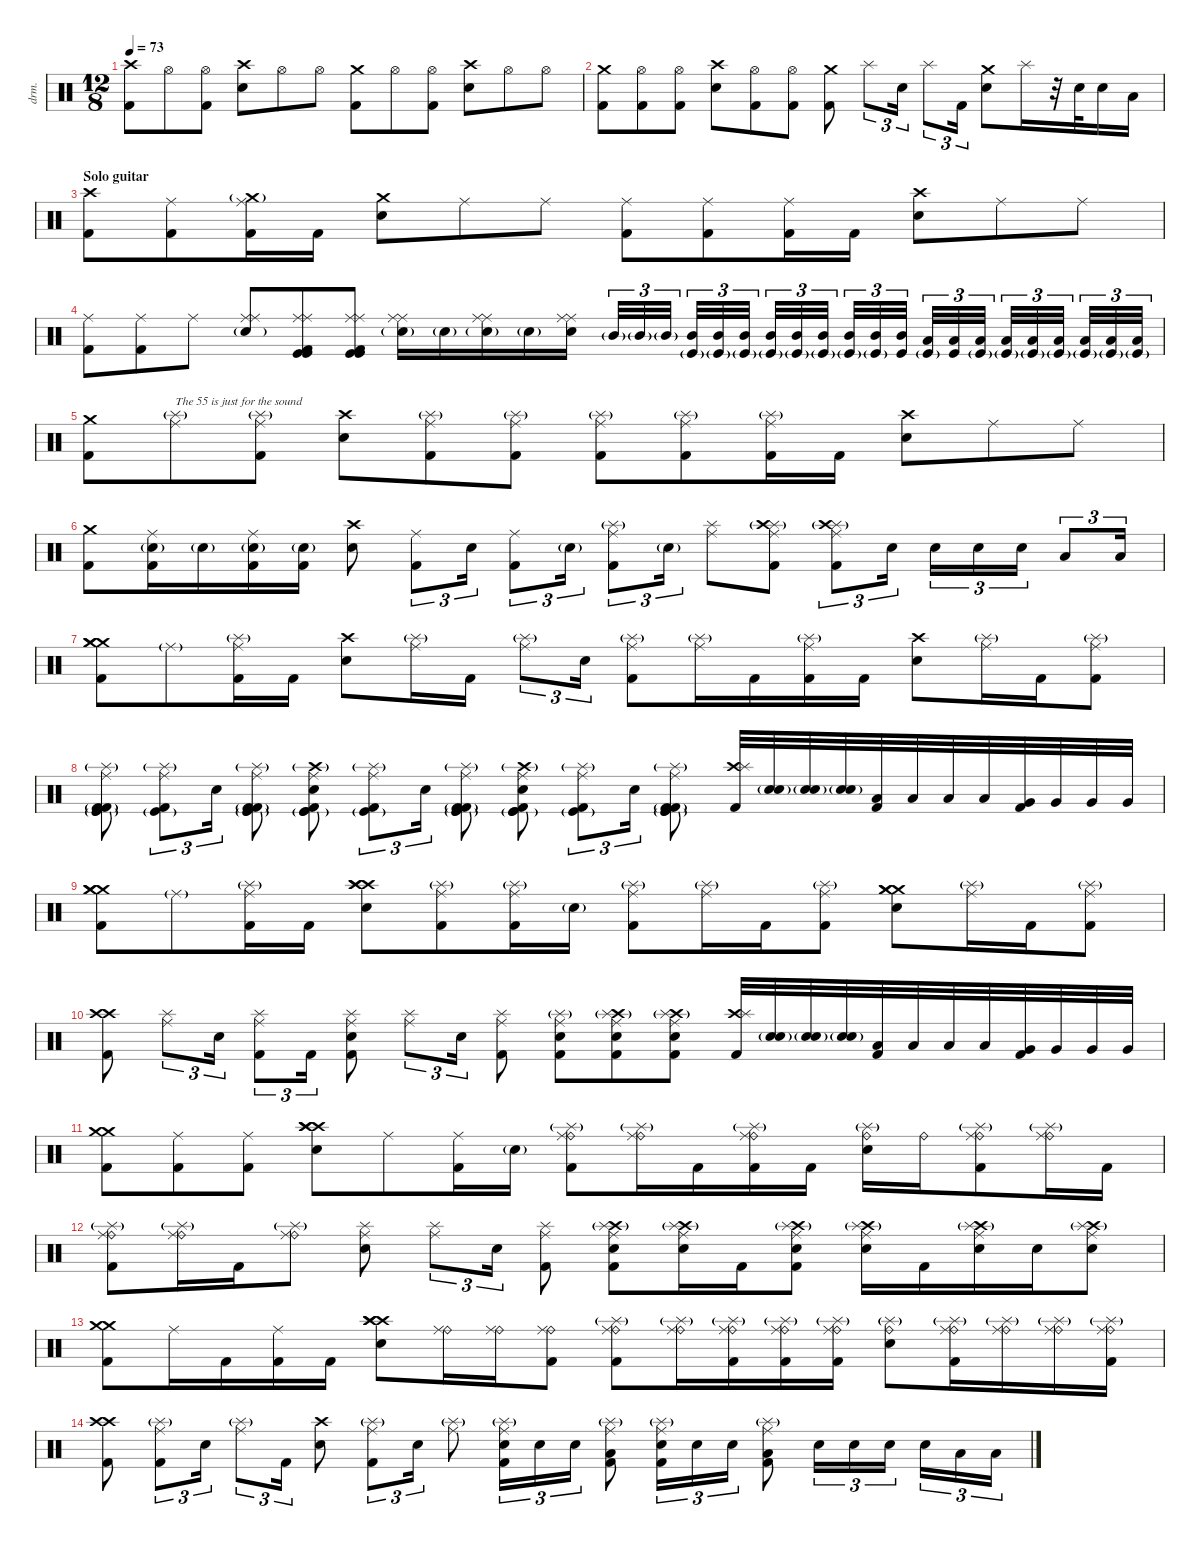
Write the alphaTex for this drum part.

\defaultSystemsLayout 4
\hideDynamics
\bracketExtendMode nobrackets
\otherSystemsTrackNameOrientation horizontal
\track ("Drums" "drm.") {instrument percussion}
\staff {score}
\articulation defaults
\ts (12 8)
\section ("" "")
\tempo 73
\clef neutral
\ks c
("Crash high (hit)" "Kick (hit) 2").8{dy f beam Down} "Hi-Hat (open)".8{beam Down} ("Hi-Hat (open)" "Kick (hit) 2").8{beam Down} ("Snare (hit) 2" "Crash high (hit)").8{beam Down} "Hi-Hat (open)".8{beam Down} "Hi-Hat (open)".8{beam Down} ("Crash medium (hit)" "Kick (hit) 2").8{beam Down} "Hi-Hat (open)".8{beam Down} ("Hi-Hat (open)" "Kick (hit) 2").8{beam Down} ("Snare (hit) 2" "Crash high (hit)").8{beam Down} "Hi-Hat (open)".8{beam Down} "Hi-Hat (open)".8{beam Down} |
("Crash medium (hit)" "Kick (hit) 2").8{beam Down} ("Hi-Hat (open)" "Kick (hit) 2").8{beam Down} ("Hi-Hat (open)" "Kick (hit) 2").8{beam Down} ("Snare (hit) 2" "Crash high (hit)").8{beam Down} ("Hi-Hat (open)" "Kick (hit) 2").8{beam Down} ("Hi-Hat (open)" "Kick (hit) 2").8{beam Down} ("Crash medium (hit)" "Kick (hit) 2").8{beam Down} "Splash (hit)".8{tu (3 2) beam Down} "Snare (hit) 2".16{tu (3 2) beam Down} "Splash (hit)".8{tu (3 2) beam Down} "Kick (hit) 2".16{tu (3 2) beam Down} ("Snare (hit) 2" "Crash medium (hit)").8{beam Down} "Splash (hit)".16{beam Down} r.32{beam Down} "Snare (hit) 2".32{beam Down} "Snare (hit) 2".16{beam Down} "Low Tom (hit)".16{beam Down} |
\section ("" "Solo guitar")
("Crash high (hit)" "Kick (hit) 2").8{beam Down} ("Ride (middle)" "Kick (hit) 2").8{beam Down} ("Crash medium (hit)"{g} "Ride (middle)" "Kick (hit) 2").16{beam Down} "Kick (hit) 2".16{beam Down} ("Snare (hit) 2" "Crash medium (hit)").8{beam Down} "Ride (middle)".8{beam Down} "Ride (middle)".8{beam Down} ("Ride (middle)" "Kick (hit) 2").8{beam Down} ("Ride (middle)" "Kick (hit) 2").8{beam Down} ("Ride (middle)" "Kick (hit) 2").16{beam Down} "Kick (hit) 2".16{beam Down} ("Snare (hit) 2" "Crash high (hit)").8{beam Down} "Ride (middle)".8{beam Down} "Ride (middle)".8{beam Down} |
("Ride (middle)" "Kick (hit) 2").8{dy fff beam Down} ("Ride (middle)" "Kick (hit) 2").8{beam Down} "Ride (middle)".8{beam Down} ("Snare (hit) 2"{g} "Ride (middle)" "Ride (middle)").8{dy f beam Up} ("Kick (hit)" "Kick (hit)" "Ride (middle)" "Ride (middle)" "Kick (hit) 2").8{beam Up} ("Kick (hit)" "Kick (hit)" "Ride (middle)" "Ride (middle)" "Kick (hit) 2").8{beam Up} ("Snare (hit) 2"{g} "Ride (middle)" "Ride (middle)").16{beam Down} "Snare (hit) 2"{g}.16{dy ff beam Down} ("Snare (hit) 2"{g} "Ride (middle)" "Ride (middle)").16{dy mf beam Down} "Snare (hit) 2"{g}.16{dy ff beam Down} ("Snare (hit) 2" "Ride (middle)" "Ride (middle)").16{dy f beam Down} "Mid Tom (hit)"{g}.32{tu (3 2) beam Up} "Mid Tom (hit)"{g}.32{tu (3 2) beam Up} "Mid Tom (hit)"{g}.32{tu (3 2) beam Up} ("Kick (hit)"{g} "Mid Tom (hit)").32{tu (3 2) beam Up} ("Kick (hit)"{g} "Mid Tom (hit)").32{tu (3 2) beam Up} ("Kick (hit)"{g} "Mid Tom (hit)").32{tu (3 2) beam Up} ("Kick (hit)"{g} "Mid Tom (hit)").32{tu (3 2) beam Up} ("Kick (hit)"{g} "Mid Tom (hit)").32{tu (3 2) beam Up} ("Kick (hit)"{g} "Mid Tom (hit)").32{tu (3 2) beam Up} ("Kick (hit)"{g} "Mid Tom (hit)").32{tu (3 2) beam Up} ("Kick (hit)"{g} "Mid Tom (hit)").32{tu (3 2) beam Up} ("Kick (hit)" "Mid Tom (hit)").32{tu (3 2) beam Up} ("Kick (hit)"{g} "Low Tom (hit)").32{tu (3 2) beam Up} ("Kick (hit)" "Low Tom (hit)").32{tu (3 2) beam Up} ("Kick (hit)"{g} "Low Tom (hit)").32{tu (3 2) beam Up} ("Kick (hit)"{g} "Low Tom (hit)").32{tu (3 2) beam Up} ("Kick (hit)"{g} "Low Tom (hit)").32{tu (3 2) beam Up} ("Kick (hit)"{g} "Low Tom (hit)").32{tu (3 2) beam Up} ("Kick (hit)"{g} "Low Tom (hit)").32{tu (3 2) beam Up} ("Kick (hit)"{g} "Low Tom (hit)").32{tu (3 2) beam Up} ("Kick (hit)"{g} "Low Tom (hit)").32{tu (3 2) beam Up} |
("Crash medium (hit)" "Kick (hit) 2").8{beam Down} ("Splash (hit)"{g} "Ride (middle)").8{txt "The 55 is just for the sound" beam Down} ("Splash (hit)"{g} "Ride (middle)" "Kick (hit) 2").8{beam Down} ("Snare (hit) 2" "Crash high (hit)").8{beam Down} ("Splash (hit)"{g} "Ride (middle)" "Kick (hit) 2").8{beam Down} ("Splash (hit)"{g} "Ride (middle)" "Kick (hit) 2").8{beam Down} ("Splash (hit)"{g} "Ride (middle)" "Kick (hit) 2").8{beam Down} ("Splash (hit)"{g} "Ride (middle)" "Kick (hit) 2").8{beam Down} ("Splash (hit)"{g} "Ride (middle)" "Kick (hit) 2").16{beam Down} "Kick (hit) 2".16{beam Down} ("Snare (hit) 2" "Crash high (hit)").8{beam Down} "Ride (middle)".8{beam Down} "Ride (middle)".8{beam Down} |
("Crash medium (hit)" "Kick (hit) 2").8{beam Down} ("Snare (hit) 2"{g} "Ride (middle)" "Kick (hit) 2").16{beam Down} "Snare (hit) 2"{g}.16{beam Down} ("Snare (hit) 2"{g} "Ride (middle)" "Kick (hit) 2").16{beam Down} ("Snare (hit) 2"{g} "Kick (hit) 2").16{beam Down} ("Snare (hit) 2" "Crash high (hit)").8{beam Down} ("Ride (middle)" "Kick (hit) 2").8{tu (3 2) beam Down} "Snare (hit) 2".16{tu (3 2) beam Down} ("Ride (middle)" "Kick (hit) 2").8{tu (3 2) beam Down} "Snare (hit) 2"{g}.16{tu (3 2) beam Down} ("Ride (middle)" "Splash (hit)"{g} "Kick (hit) 2").8{tu (3 2) dy mp beam Down} "Snare (hit) 2"{g}.16{tu (3 2) dy f beam Down} ("Ride (middle)" "Splash (hit)").8{dy mp beam Down} ("Ride (middle)" "Splash (hit)"{g} "Crash high (hit)"{g} "Kick (hit) 2").8{beam Down} ("Ride (middle)" "Splash (hit)" "Crash high (hit)"{g} "Kick (hit) 2").8{tu (3 2) dy f beam Down} "Snare (hit) 2".16{tu (3 2) beam Down} "Snare (hit) 2".16{tu (3 2) beam Down} "Snare (hit) 2".16{tu (3 2) dy mp beam Down} "Snare (hit) 2".16{tu (3 2) dy f beam Down} "Low Tom (hit)".8{tu (3 2) beam Up} "Low Tom (hit)".16{tu (3 2) beam Up} |
("Crash medium (hit)" "Crash medium (hit)" "Crash medium (hit)" "Kick (hit) 2").8{beam Down} "Ride (middle)"{g}.8{beam Down} ("Splash (hit)"{g} "Ride (middle)" "Kick (hit) 2").16{beam Down} "Kick (hit) 2".16{beam Down} ("Snare (hit) 2" "Crash high (hit)").8{beam Down} ("Splash (hit)"{g} "Ride (middle)").16{beam Down} "Kick (hit) 2".16{beam Down} ("Splash (hit)"{g} "Ride (middle)").8{tu (3 2) beam Down} "Snare (hit) 2".16{tu (3 2) beam Down} ("Splash (hit)"{g} "Ride (middle)" "Kick (hit) 2").8{beam Down} ("Splash (hit)"{g} "Ride (middle)").16{beam Down} "Kick (hit) 2".16{beam Down} ("Splash (hit)"{g} "Ride (middle)" "Kick (hit) 2").16{beam Down} "Kick (hit) 2".16{beam Down} ("Snare (hit) 2" "Crash high (hit)").8{beam Down} ("Splash (hit)"{g} "Ride (middle)").16{beam Down} "Kick (hit) 2".16{beam Down} ("Splash (hit)"{g} "Ride (middle)" "Kick (hit) 2").8{beam Down} |
("Kick (hit) 2"{g} "Kick (hit)"{g} "Splash (hit)"{g} "Ride (middle)" "Kick (hit)"{g} "Kick (hit) 2").8{beam Down} ("Splash (hit)"{g} "Ride (middle)" "Kick (hit)"{g} "Kick (hit) 2").8{tu (3 2) dy ff beam Down} "Snare (hit) 2".16{tu (3 2) dy f beam Down} ("Kick (hit) 2"{g} "Kick (hit)"{g} "Splash (hit)"{g} "Ride (middle)" "Kick (hit)"{g} "Kick (hit) 2").8{dy fff beam Down} ("Snare (hit) 2" "Kick (hit)"{g} "Crash high (hit)"{g} "Ride (middle)" "Kick (hit)"{g} "Kick (hit) 2").8{dy f beam Down} ("Splash (hit)"{g} "Ride (middle)" "Kick (hit)"{g} "Kick (hit) 2").8{tu (3 2) dy fff beam Down} "Snare (hit) 2".16{tu (3 2) dy f beam Down} ("Kick (hit) 2"{g} "Kick (hit)"{g} "Splash (hit)"{g} "Ride (middle)" "Kick (hit)"{g} "Kick (hit) 2").8{dy fff beam Down} ("Snare (hit) 2" "Kick (hit)"{g} "Crash high (hit)"{g} "Ride (middle)" "Kick (hit)"{g} "Kick (hit) 2").8{dy f beam Down} ("Splash (hit)"{g} "Ride (middle)" "Kick (hit)"{g} "Kick (hit) 2").8{tu (3 2) dy fff beam Down} "Snare (hit) 2".16{tu (3 2) dy f beam Down} ("Kick (hit) 2"{g} "Kick (hit)"{g} "Splash (hit)"{g} "Ride (middle)" "Kick (hit)"{g} "Kick (hit) 2").8{dy fff beam Down} ("Crash high (hit)" "Splash (hit)" "Kick (hit) 2").32{dy f beam Up} ("Snare (hit) 2" "Snare (hit) 2"{g}).32{beam Up} ("Snare (hit) 2" "Snare (hit) 2"{g}).32{beam Up} ("Snare (hit) 2" "Snare (hit) 2"{g}).32{beam Up} ("Low Tom (hit)" "Kick (hit) 2").32{beam Up} "Low Tom (hit)".32{beam Up} "Low Tom (hit)".32{beam Up} "Low Tom (hit)".32{beam Up} ("Very Low Tom (hit)" "Kick (hit) 2").32{beam Up} "Very Low Tom (hit)".32{beam Up} "Very Low Tom (hit)".32{beam Up} "Very Low Tom (hit)".32{beam Up} |
("Crash medium (hit)" "Crash medium (hit)" "Crash medium (hit)" "Kick (hit) 2").8{beam Down} "Ride (middle)"{g}.8{beam Down} ("Splash (hit)"{g} "Ride (middle)" "Kick (hit) 2").16{beam Down} "Kick (hit) 2".16{beam Down} ("Crash high (hit)" "Snare (hit) 2" "Crash high (hit)" "Crash high (hit)").8{beam Down} ("Splash (hit)"{g} "Ride (middle)" "Kick (hit) 2").8{beam Down} ("Splash (hit)"{g} "Ride (middle)" "Kick (hit) 2").16{beam Down} "Snare (hit) 2"{g}.16{beam Down} ("Splash (hit)"{g} "Ride (middle)" "Kick (hit) 2").8{beam Down} ("Splash (hit)"{g} "Ride (middle)").16{beam Down} "Kick (hit) 2".16{beam Down} ("Splash (hit)"{g} "Ride (middle)" "Kick (hit) 2").8{beam Down} ("Crash medium (hit)" "Snare (hit) 2" "Crash medium (hit)" "Crash medium (hit)").8{beam Down} ("Splash (hit)"{g} "Ride (middle)").16{beam Down} "Kick (hit) 2".16{beam Down} ("Splash (hit)"{g} "Ride (middle)" "Kick (hit) 2").8{beam Down} |
("Crash high (hit)" "Crash high (hit)" "Kick (hit) 2").8{beam Down} ("Splash (hit)" "Ride (middle)").8{tu (3 2) beam Down} "Snare (hit) 2".16{tu (3 2) beam Down} ("Splash (hit)" "Ride (middle)" "Kick (hit) 2").8{tu (3 2) beam Down} "Kick (hit) 2".16{tu (3 2) beam Down} ("Splash (hit)" "Snare (hit) 2" "Ride (middle)" "Kick (hit) 2").8{dy fff beam Down} ("Splash (hit)" "Ride (middle)").8{tu (3 2) beam Down} "Snare (hit) 2".16{tu (3 2) dy f beam Down} ("Splash (hit)" "Ride (middle)" "Kick (hit) 2").8{beam Down} ("Splash (hit)"{g} "Snare (hit) 2" "Ride (middle)" "Kick (hit) 2").8{dy fff beam Down} ("Crash high (hit)"{g} "Splash (hit)"{g} "Snare (hit) 2" "Ride (middle)" "Kick (hit) 2").8{beam Down} ("Crash high (hit)"{g} "Splash (hit)"{g} "Snare (hit) 2" "Ride (middle)" "Kick (hit) 2").8{beam Down} ("Crash high (hit)" "Splash (hit)" "Kick (hit) 2").32{dy f beam Up} ("Snare (hit) 2" "Snare (hit) 2"{g}).32{beam Up} ("Snare (hit) 2" "Snare (hit) 2"{g}).32{beam Up} ("Snare (hit) 2" "Snare (hit) 2"{g}).32{beam Up} ("Low Tom (hit)" "Kick (hit) 2").32{beam Up} "Low Tom (hit)".32{beam Up} "Low Tom (hit)".32{beam Up} "Low Tom (hit)".32{beam Up} ("Very Low Tom (hit)" "Kick (hit) 2").32{beam Up} "Very Low Tom (hit)".32{beam Up} "Very Low Tom (hit)".32{beam Up} "Very Low Tom (hit)".32{beam Up} |
("Crash medium (hit)" "Crash medium (hit)" "Kick (hit) 2").8{beam Down} ("Ride (middle)" "Kick (hit) 2").8{beam Down} ("Ride (middle)" "Kick (hit) 2").8{beam Down} ("Crash high (hit)" "Snare (hit) 2" "Crash high (hit)" "Crash high (hit)").8{beam Down} "Ride (middle)".8{beam Down} ("Ride (middle)" "Kick (hit) 2").16{beam Down} "Snare (hit) 2"{g}.16{beam Down} ("Ride (bell)" "Splash (hit)"{g} "Ride (middle)" "Kick (hit) 2").8{beam Down} ("Ride (bell)" "Splash (hit)"{g} "Ride (middle)").16{beam Down} "Kick (hit) 2".16{beam Down} ("Ride (bell)" "Splash (hit)"{g} "Ride (middle)" "Kick (hit) 2").16{beam Down} "Kick (hit) 2".16{beam Down} ("Ride (bell)" "Splash (hit)"{g} "Snare (hit) 2").16{beam Down} "Ride (bell)".16{beam Down} ("Ride (bell)" "Splash (hit)"{g} "Ride (middle)" "Kick (hit) 2").8{beam Down} ("Ride (bell)" "Splash (hit)"{g} "Ride (middle)").16{beam Down} "Kick (hit) 2".16{beam Down} |
("Ride (bell)" "Splash (hit)"{g} "Ride (middle)" "Kick (hit) 2").8{beam Down} ("Ride (bell)" "Splash (hit)"{g} "Ride (middle)").16{beam Down} "Kick (hit) 2".16{beam Down} ("Ride (bell)" "Splash (hit)"{g} "Ride (middle)").8{beam Down} ("Splash (hit)" "Snare (hit) 2" "Ride (middle)").8{beam Down} ("Splash (hit)" "Ride (middle)").8{tu (3 2) beam Down} "Snare (hit) 2".16{tu (3 2) beam Down} ("Splash (hit)" "Ride (middle)" "Kick (hit) 2").8{beam Down} ("Crash high (hit)"{g} "Splash (hit)"{g} "Snare (hit) 2" "Ride (middle)" "Kick (hit) 2").8{beam Down} ("Crash high (hit)"{g} "Splash (hit)"{g} "Snare (hit) 2" "Ride (middle)").16{beam Down} "Kick (hit) 2".16{beam Down} ("Crash high (hit)"{g} "Splash (hit)"{g} "Snare (hit) 2" "Ride (middle)" "Kick (hit) 2").8{beam Down} ("Crash high (hit)"{g} "Splash (hit)"{g} "Snare (hit) 2" "Ride (middle)").16{beam Down} "Kick (hit) 2".16{beam Down} ("Crash high (hit)"{g} "Splash (hit)"{g} "Snare (hit) 2" "Ride (middle)").16{beam Down} "Snare (hit) 2".16{beam Down} ("Crash high (hit)"{g} "Splash (hit)"{g} "Snare (hit) 2" "Ride (middle)").8{beam Down} |
("Crash medium (hit)" "Crash medium (hit)" "Kick (hit) 2").8{beam Down} "Ride (middle)".16{beam Down} "Kick (hit) 2".16{beam Down} ("Ride (middle)" "Kick (hit) 2").16{beam Down} "Kick (hit) 2".16{beam Down} ("Crash high (hit)" "Snare (hit) 2" "Crash high (hit)" "Crash high (hit)").8{beam Down} ("Ride (bell)" "Ride (middle)").16{beam Down} ("Ride (bell)" "Ride (middle)").16{beam Down} ("Ride (bell)" "Ride (middle)" "Kick (hit) 2").8{beam Down} ("Ride (bell)" "Splash (hit)"{g} "Ride (middle)" "Kick (hit) 2").8{beam Down} ("Ride (bell)" "Splash (hit)"{g} "Ride (middle)").16{beam Down} ("Ride (bell)" "Splash (hit)"{g} "Ride (middle)" "Kick (hit) 2").16{beam Down} ("Ride (bell)" "Splash (hit)"{g} "Ride (middle)" "Kick (hit) 2").16{beam Down} ("Ride (bell)" "Splash (hit)"{g} "Ride (middle)" "Kick (hit) 2").16{beam Down} ("Ride (bell)" "Splash (hit)"{g} "Snare (hit) 2").8{beam Down} ("Ride (bell)" "Splash (hit)"{g} "Ride (middle)" "Kick (hit) 2").16{beam Down} ("Ride (bell)" "Splash (hit)"{g} "Ride (middle)").16{beam Down} ("Ride (bell)" "Splash (hit)"{g} "Ride (middle)").16{beam Down} ("Ride (bell)" "Splash (hit)"{g} "Ride (middle)" "Kick (hit) 2").16{beam Down} |
("Crash high (hit)" "Crash high (hit)" "Kick (hit) 2").8{beam Down} ("Splash (hit)"{g} "Ride (middle)" "Kick (hit) 2").8{tu (3 2) beam Down} "Snare (hit) 2".16{tu (3 2) beam Down} ("Splash (hit)"{g} "Ride (middle)").8{tu (3 2) beam Down} "Kick (hit) 2".16{tu (3 2) beam Down} ("Snare (hit) 2" "Crash high (hit)").8{beam Down} ("Splash (hit)"{g} "Ride (middle)" "Kick (hit) 2").8{tu (3 2) beam Down} "Snare (hit) 2".16{tu (3 2) beam Down} ("Splash (hit)"{g} "Ride (middle)").8{beam Down} ("Splash (hit)"{g} "Snare (hit) 2" "Ride (middle)" "Kick (hit) 2").16{tu (3 2) beam Down} "Snare (hit) 2".16{tu (3 2) beam Down} "Snare (hit) 2".16{tu (3 2) beam Down} ("Splash (hit)"{g} "Low Tom (hit)" "Ride (middle)" "Kick (hit) 2").8{beam Down} ("Splash (hit)"{g} "Snare (hit) 2" "Ride (middle)" "Kick (hit) 2").16{tu (3 2) beam Down} "Snare (hit) 2".16{tu (3 2) beam Down} "Snare (hit) 2".16{tu (3 2) beam Down} ("Splash (hit)"{g} "Low Tom (hit)" "Ride (middle)" "Kick (hit) 2").8{beam Down} "Snare (hit) 2".16{tu (3 2) beam Down} "Snare (hit) 2".16{tu (3 2) beam Down} "Snare (hit) 2".16{tu (3 2) beam Down} "Snare (hit) 2".16{tu (3 2) beam Down} "Low Tom (hit)".16{tu (3 2) beam Down} "Low Tom (hit)".16{tu (3 2) beam Down}
